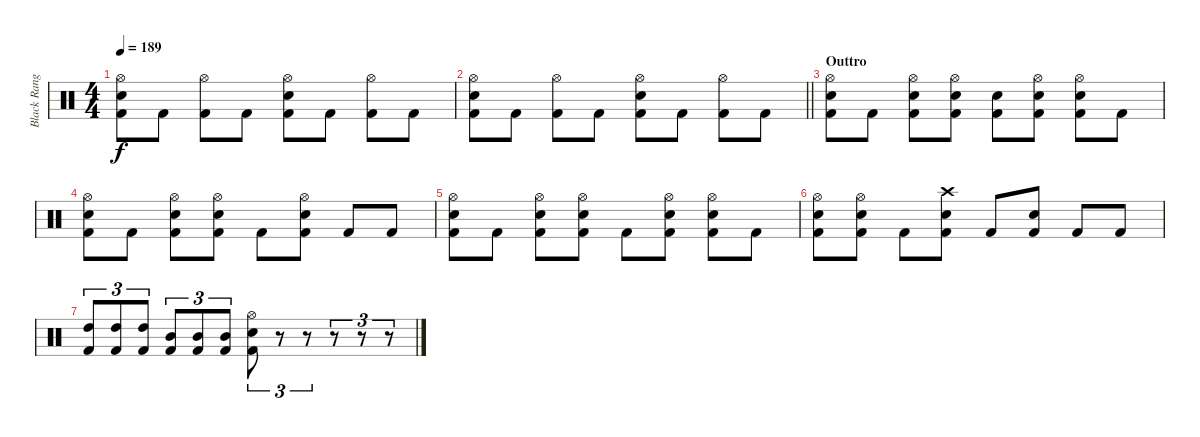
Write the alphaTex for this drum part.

\track ("Black Ranger (Drums)" "Black Rang") {instrument percussion}
\staff {score}
\articulation defaults
\ts (4 4)
\tempo 189
\clef neutral
\ks c
("Kick (hit) 2" "Snare (hit) 2" "Hi-Hat (open)").8{dy f} "Kick (hit) 2".8 ("Kick (hit) 2" "Hi-Hat (open)").8 "Kick (hit) 2".8 ("Kick (hit) 2" "Snare (hit) 2" "Hi-Hat (open)").8 "Kick (hit) 2".8 ("Kick (hit) 2" "Hi-Hat (open)").8 "Kick (hit) 2".8 |
\barLineRight lightlight
("Kick (hit) 2" "Snare (hit) 2" "Hi-Hat (open)").8 "Kick (hit) 2".8 ("Kick (hit) 2" "Hi-Hat (open)").8 "Kick (hit) 2".8 ("Kick (hit) 2" "Snare (hit) 2" "Hi-Hat (open)").8 "Kick (hit) 2".8 ("Kick (hit) 2" "Hi-Hat (open)").8 "Kick (hit) 2".8 |
\section ("" "Outtro")
("Kick (hit) 2" "Snare (hit) 2" "Hi-Hat (open)").8 "Kick (hit) 2".8 ("Kick (hit) 2" "Snare (hit) 2" "Hi-Hat (open)").8 ("Kick (hit) 2" "Snare (hit) 2" "Hi-Hat (open)").8 ("Kick (hit) 2" "Snare (hit) 2").8 ("Kick (hit) 2" "Snare (hit) 2" "Hi-Hat (open)").8 ("Kick (hit) 2" "Snare (hit) 2" "Hi-Hat (open)").8 "Kick (hit) 2".8 |
("Kick (hit) 2" "Snare (hit) 2" "Hi-Hat (open)").8 "Kick (hit) 2".8 ("Kick (hit) 2" "Snare (hit) 2" "Hi-Hat (open)").8 ("Kick (hit) 2" "Snare (hit) 2" "Hi-Hat (open)").8 "Kick (hit) 2".8 ("Kick (hit) 2" "Snare (hit) 2" "Hi-Hat (open)").8 "Kick (hit) 2".8 "Kick (hit) 2".8 |
("Kick (hit) 2" "Snare (hit) 2" "Hi-Hat (open)").8 "Kick (hit) 2".8 ("Kick (hit) 2" "Snare (hit) 2" "Hi-Hat (open)").8 ("Kick (hit) 2" "Snare (hit) 2" "Hi-Hat (open)").8 "Kick (hit) 2".8 ("Kick (hit) 2" "Snare (hit) 2" "Hi-Hat (open)").8 ("Kick (hit) 2" "Snare (hit) 2" "Hi-Hat (open)").8 "Kick (hit) 2".8 |
("Kick (hit) 2" "Snare (hit) 2" "Hi-Hat (open)").8 ("Kick (hit) 2" "Snare (hit) 2" "Hi-Hat (open)").8 "Kick (hit) 2".8 ("Kick (hit) 2" "Snare (hit) 2" "Crash high (hit)").8 "Kick (hit) 2".8 ("Kick (hit) 2" "Snare (hit) 2").8 "Kick (hit) 2".8 "Kick (hit) 2".8 |
("High Tom (hit)" "Kick (hit) 2").8{tu (3 2)} ("High Tom (hit)" "Kick (hit) 2").8{tu (3 2)} ("High Tom (hit)" "Kick (hit) 2").8{tu (3 2)} ("Mid Tom (hit)" "Kick (hit) 2").8{tu (3 2)} ("Mid Tom (hit)" "Kick (hit) 2").8{tu (3 2)} ("Mid Tom (hit)" "Kick (hit) 2").8{tu (3 2)} ("Snare (hit) 2" "Kick (hit) 2" "Hi-Hat (open)").8{tu (3 2)} r.8{tu (3 2)} r.8{tu (3 2)} r.8{tu (3 2)} r.8{tu (3 2)} r.8{tu (3 2)}
